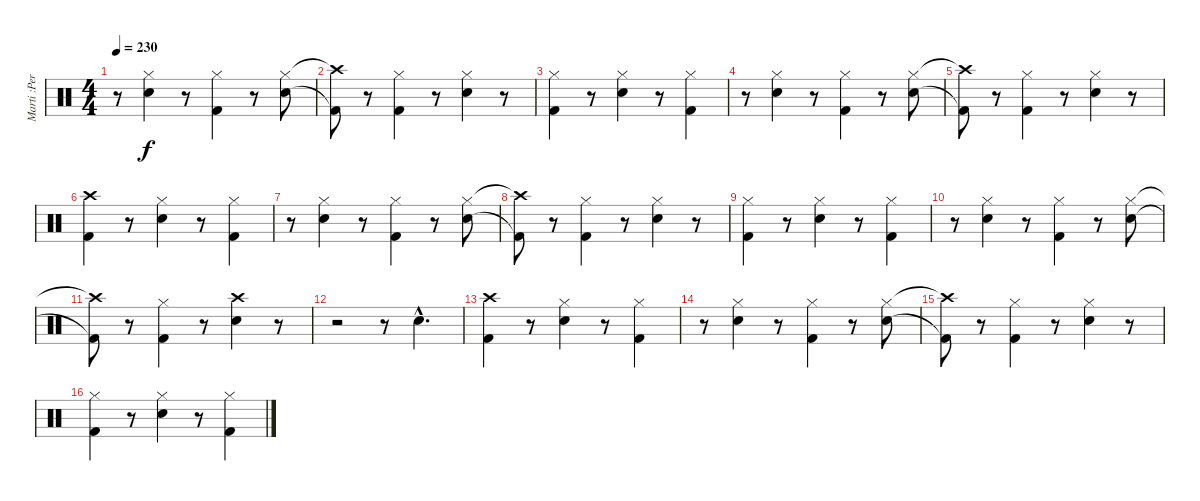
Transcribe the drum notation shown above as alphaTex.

\track ("Marti :Percussion" "Marti :Per") {instrument percussion}
\staff {score}
\articulation defaults
\ts (4 4)
\tempo 230
\clef neutral
\ks c
r.8{dy f} ("Hi-Hat (closed)" "Snare (hit) 2").4 r.8 ("Hi-Hat (closed)" "Kick (hit) 2").4 r.8 ("Hi-Hat (closed)" "Snare (hit) 2").8 |
("Crash high (hit)"{t} "Kick (hit) 2"{t}).8 r.8 ("Hi-Hat (closed)" "Kick (hit) 2").4 r.8 ("Hi-Hat (closed)" "Snare (hit) 2").4 r.8 |
("Hi-Hat (closed)" "Kick (hit) 2").4 r.8 ("Hi-Hat (closed)" "Snare (hit) 2").4 r.8 ("Hi-Hat (closed)" "Kick (hit) 2").4 |
r.8 ("Hi-Hat (closed)" "Snare (hit) 2").4 r.8 ("Hi-Hat (closed)" "Kick (hit) 2").4 r.8 ("Hi-Hat (closed)" "Snare (hit) 2").8 |
("Crash high (hit)"{t} "Kick (hit) 2"{t}).8 r.8 ("Hi-Hat (closed)" "Kick (hit) 2").4 r.8 ("Hi-Hat (closed)" "Snare (hit) 2").4 r.8 |
("Crash high (hit)" "Kick (hit) 2").4 r.8 ("Hi-Hat (closed)" "Snare (hit) 2").4 r.8 ("Hi-Hat (closed)" "Kick (hit) 2").4 |
r.8 ("Hi-Hat (closed)" "Snare (hit) 2").4 r.8 ("Hi-Hat (closed)" "Kick (hit) 2").4 r.8 ("Hi-Hat (closed)" "Snare (hit) 2").8 |
("Crash high (hit)"{t} "Kick (hit) 2"{t}).8 r.8 ("Hi-Hat (closed)" "Kick (hit) 2").4 r.8 ("Hi-Hat (closed)" "Snare (hit) 2").4 r.8 |
("Hi-Hat (closed)" "Kick (hit) 2").4 r.8 ("Hi-Hat (closed)" "Snare (hit) 2").4 r.8 ("Hi-Hat (closed)" "Kick (hit) 2").4 |
r.8 ("Hi-Hat (closed)" "Snare (hit) 2").4 r.8 ("Hi-Hat (closed)" "Kick (hit) 2").4 r.8 ("Hi-Hat (closed)" "Snare (hit) 2").8 |
("Crash high (hit)"{t} "Kick (hit) 2"{t}).8 r.8 ("Hi-Hat (closed)" "Kick (hit) 2").4 r.8 ("Crash high (hit)" "Snare (hit) 2").4 r.8 |
r.2 r.8 "Snare (hit) 2"{hac}.4{d} |
("Crash high (hit)" "Kick (hit) 2").4 r.8 ("Hi-Hat (closed)" "Snare (hit) 2").4 r.8 ("Hi-Hat (closed)" "Kick (hit) 2").4 |
r.8 ("Hi-Hat (closed)" "Snare (hit) 2").4 r.8 ("Hi-Hat (closed)" "Kick (hit) 2").4 r.8 ("Hi-Hat (closed)" "Snare (hit) 2").8 |
("Crash high (hit)"{t} "Kick (hit) 2"{t}).8 r.8 ("Hi-Hat (closed)" "Kick (hit) 2").4 r.8 ("Hi-Hat (closed)" "Snare (hit) 2").4 r.8 |
("Hi-Hat (closed)" "Kick (hit) 2").4 r.8 ("Hi-Hat (closed)" "Snare (hit) 2").4 r.8 ("Hi-Hat (closed)" "Kick (hit) 2").4
